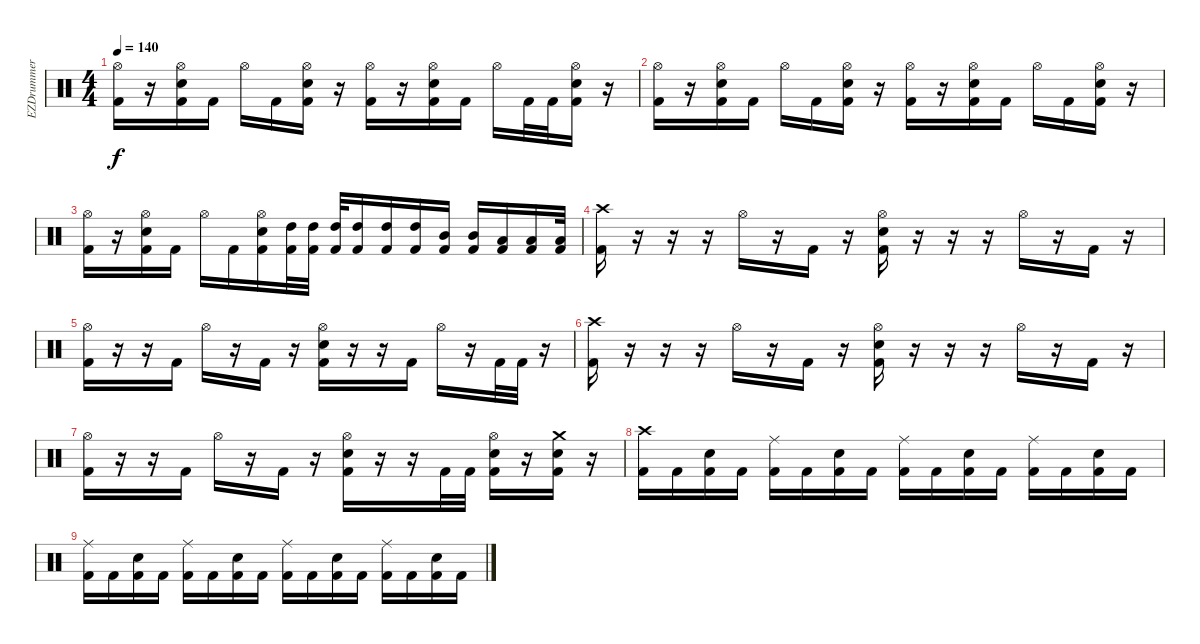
\track ("EZDrummer" "EZDrummer") {instrument percussion}
\staff {score}
\articulation defaults
\ts (4 4)
\tempo 140
\clef neutral
\ks c
("Hi-Hat (open)" "Kick (hit) 2").16{dy f} r.16 ("Hi-Hat (open)" "Snare (hit) 2" "Kick (hit) 2").16 "Kick (hit) 2".16 "Hi-Hat (open)".16 "Kick (hit) 2".16 ("Hi-Hat (open)" "Snare (hit) 2" "Kick (hit) 2").16 r.16 ("Hi-Hat (open)" "Kick (hit) 2").16 r.16 ("Hi-Hat (open)" "Snare (hit) 2" "Kick (hit) 2").16 "Kick (hit) 2".16 "Hi-Hat (open)".16 "Kick (hit) 2".32 "Kick (hit) 2".32 ("Hi-Hat (open)" "Snare (hit) 2" "Kick (hit) 2").16 r.16 |
("Hi-Hat (open)" "Kick (hit) 2").16 r.16 ("Hi-Hat (open)" "Snare (hit) 2" "Kick (hit) 2").16 "Kick (hit) 2".16 "Hi-Hat (open)".16 "Kick (hit) 2".16 ("Hi-Hat (open)" "Snare (hit) 2" "Kick (hit) 2").16 r.16 ("Hi-Hat (open)" "Kick (hit) 2").16 r.16 ("Hi-Hat (open)" "Snare (hit) 2" "Kick (hit) 2").16 "Kick (hit) 2".16 "Hi-Hat (open)".16 "Kick (hit) 2".16 ("Hi-Hat (open)" "Snare (hit) 2" "Kick (hit) 2").16 r.16 |
("Hi-Hat (open)" "Kick (hit) 2").16 r.16 ("Hi-Hat (open)" "Snare (hit) 2" "Kick (hit) 2").16 "Kick (hit) 2".16 "Hi-Hat (open)".16 "Kick (hit) 2".16 ("Hi-Hat (open)" "Snare (hit) 2" "Kick (hit) 2").16 ("High Tom (hit)" "Kick (hit) 2").32 ("High Tom (hit)" "Kick (hit) 2").32 ("High Tom (hit)" "Kick (hit) 2").32 ("High Tom (hit)" "Kick (hit) 2").16 ("High Tom (hit)" "Kick (hit) 2").16 ("High Tom (hit)" "Kick (hit) 2").16 ("Mid Tom (hit)" "Kick (hit) 2").16 ("Mid Tom (hit)" "Kick (hit) 2").16 ("Low Tom (hit)" "Kick (hit) 2").16 ("Low Tom (hit)" "Kick (hit) 2").16 ("Low Tom (hit)" "Kick (hit) 2").32 |
("Crash high (hit)" "Kick (hit) 2").16 r.16 r.16 r.16 "Hi-Hat (open)".16 r.16 "Kick (hit) 2".16 r.16 ("Hi-Hat (open)" "Snare (hit) 2" "Kick (hit) 2").16 r.16 r.16 r.16 "Hi-Hat (open)".16 r.16 "Kick (hit) 2".16 r.16 |
("Hi-Hat (open)" "Kick (hit) 2").16 r.16 r.16 "Kick (hit) 2".16 "Hi-Hat (open)".16 r.16 "Kick (hit) 2".16 r.16 ("Hi-Hat (open)" "Snare (hit) 2" "Kick (hit) 2").16 r.16 r.16 "Kick (hit) 2".16 "Hi-Hat (open)".16 r.16 "Kick (hit) 2".32 "Kick (hit) 2".32 r.16 |
("Crash high (hit)" "Kick (hit) 2").16 r.16 r.16 r.16 "Hi-Hat (open)".16 r.16 "Kick (hit) 2".16 r.16 ("Hi-Hat (open)" "Snare (hit) 2" "Kick (hit) 2").16 r.16 r.16 r.16 "Hi-Hat (open)".16 r.16 "Kick (hit) 2".16 r.16 |
("Hi-Hat (open)" "Kick (hit) 2").16 r.16 r.16 "Kick (hit) 2".16 "Hi-Hat (open)".16 r.16 "Kick (hit) 2".16 r.16 ("Hi-Hat (open)" "Snare (hit) 2" "Kick (hit) 2").16 r.16 r.16 "Kick (hit) 2".32 "Kick (hit) 2".32 ("Hi-Hat (open)" "Snare (hit) 2" "Kick (hit) 2").16 r.16 ("Crash medium (hit)" "Snare (hit) 2" "Kick (hit) 2").16 r.16 |
("Crash high (hit)" "Kick (hit) 2").16 "Kick (hit) 2".16 ("Snare (hit) 2" "Kick (hit) 2").16 "Kick (hit) 2".16 ("Ride (middle)" "Kick (hit) 2").16 "Kick (hit) 2".16 ("Snare (hit) 2" "Kick (hit) 2").16 "Kick (hit) 2".16 ("Ride (middle)" "Kick (hit) 2").16 "Kick (hit) 2".16 ("Snare (hit) 2" "Kick (hit) 2").16 "Kick (hit) 2".16 ("Ride (middle)" "Kick (hit) 2").16 "Kick (hit) 2".16 ("Snare (hit) 2" "Kick (hit) 2").16 "Kick (hit) 2".16 |
("Ride (middle)" "Kick (hit) 2").16 "Kick (hit) 2".16 ("Snare (hit) 2" "Kick (hit) 2").16 "Kick (hit) 2".16 ("Ride (middle)" "Kick (hit) 2").16 "Kick (hit) 2".16 ("Snare (hit) 2" "Kick (hit) 2").16 "Kick (hit) 2".16 ("Ride (middle)" "Kick (hit) 2").16 "Kick (hit) 2".16 ("Snare (hit) 2" "Kick (hit) 2").16 "Kick (hit) 2".16 ("Ride (middle)" "Kick (hit) 2").16 "Kick (hit) 2".16 ("Snare (hit) 2" "Kick (hit) 2").16 "Kick (hit) 2".16
